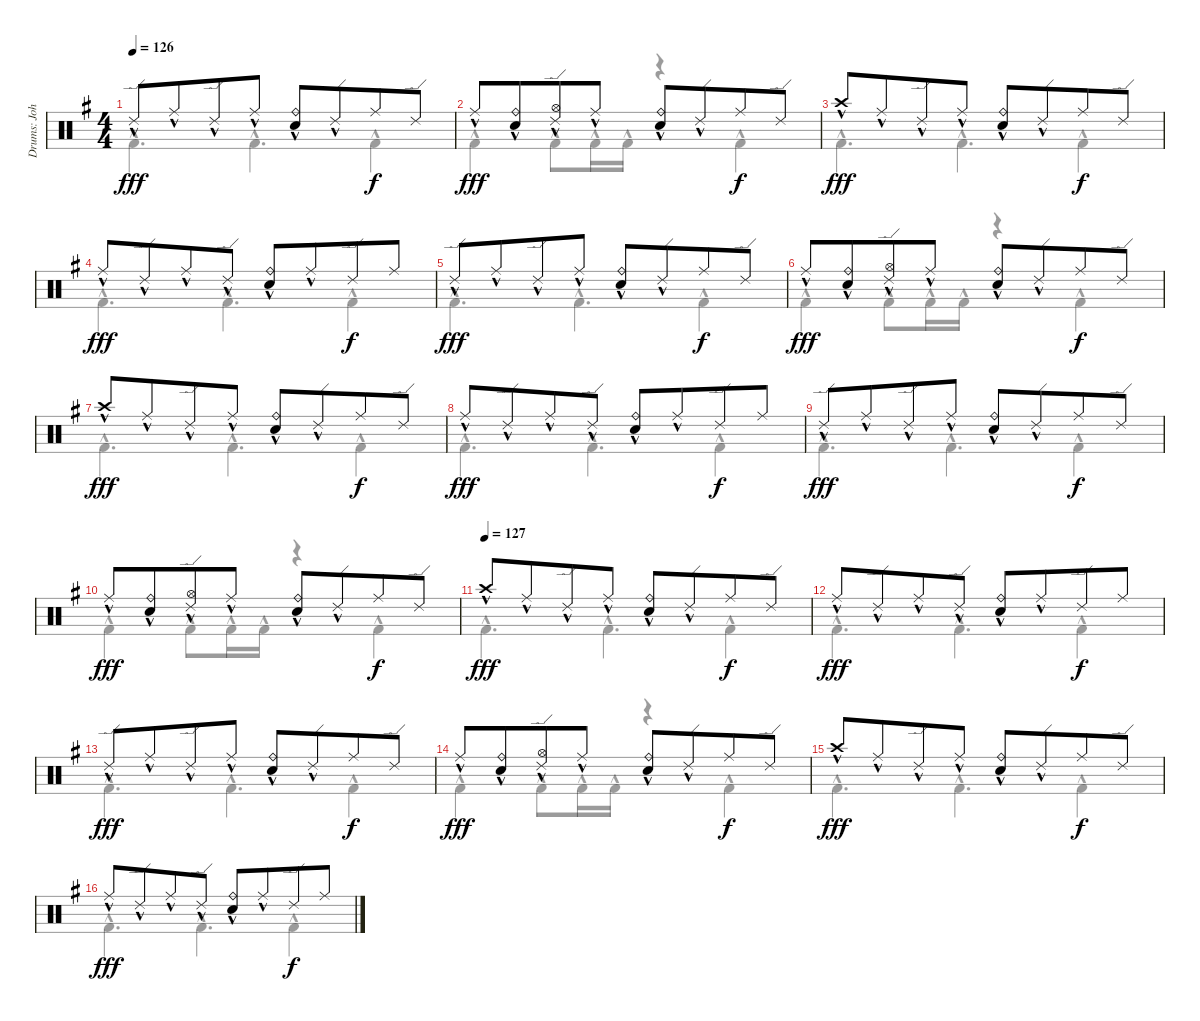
\track ("Drums: John" "Drums: Joh") {instrument percussion}
\staff {score}
\articulation defaults
\voice
\ts (4 4)
\tempo 126
\clef neutral
\ks g "Ride (edge) 2"{hac}.8{dy fff} "Ride (middle)"{hac}.8{beam merge} "Ride (edge) 2"{hac}.8 "Ride (middle)"{hac}.8
("Ride (bell)" "Snare (hit) 2"{hac}).8 "Ride (edge) 2"{hac}.8{beam merge} "Ride (middle)".8{dy f} "Ride (edge) 2".8 |
"Ride (middle)"{hac}.8{dy fff} ("Ride (bell)" "Electric Snare (hit)"{hac}).8{beam merge} ("Ride (edge) 2" "Hi-Hat (open)"{hac}).8 "Ride (middle)"{hac}.8 ("Ride (bell)" "Electric Snare (hit)"{hac}).8 "Ride (edge) 2"{hac}.8{beam merge} "Ride (middle)".8{dy f} "Ride (edge) 2".8 |
"Crash high (hit)"{hac}.8{dy fff} "Ride (middle)"{hac}.8{beam merge} "Ride (edge) 2"{hac}.8 "Ride (middle)"{hac}.8 ("Ride (bell)" "Snare (hit) 2"{hac}).8 "Ride (edge) 2"{hac}.8{beam merge} "Ride (middle)".8{dy f} "Ride (edge) 2".8 |
"Ride (middle)"{hac}.8{dy fff} "Ride (edge) 2"{hac}.8{beam merge} "Ride (middle)"{hac}.8 "Ride (edge) 2"{hac}.8 ("Ride (bell)" "Snare (hit) 2"{hac}).8 "Ride (middle)"{hac}.8{beam merge} "Ride (edge) 2".8{dy f} "Ride (middle)".8 |
"Ride (edge) 2"{hac}.8{dy fff} "Ride (middle)"{hac}.8{beam merge} "Ride (edge) 2"{hac}.8 "Ride (middle)"{hac}.8 ("Ride (bell)" "Snare (hit) 2"{hac}).8 "Ride (edge) 2"{hac}.8{beam merge} "Ride (middle)".8{dy f} "Ride (edge) 2".8 |
"Ride (middle)"{hac}.8{dy fff} ("Ride (bell)" "Electric Snare (hit)"{hac}).8{beam merge} ("Ride (edge) 2" "Hi-Hat (open)"{hac}).8 "Ride (middle)"{hac}.8 ("Ride (bell)" "Electric Snare (hit)"{hac}).8 "Ride (edge) 2"{hac}.8{beam merge} "Ride (middle)".8{dy f} "Ride (edge) 2".8 |
"Crash high (hit)"{hac}.8{dy fff} "Ride (middle)"{hac}.8{beam merge} "Ride (edge) 2"{hac}.8 "Ride (middle)"{hac}.8 ("Ride (bell)" "Snare (hit) 2"{hac}).8 "Ride (edge) 2"{hac}.8{beam merge} "Ride (middle)".8{dy f} "Ride (edge) 2".8 |
"Ride (middle)"{hac}.8{dy fff} "Ride (edge) 2"{hac}.8{beam merge} "Ride (middle)"{hac}.8 "Ride (edge) 2"{hac}.8 ("Ride (bell)" "Snare (hit) 2"{hac}).8 "Ride (middle)"{hac}.8{beam merge} "Ride (edge) 2".8{dy f} "Ride (middle)".8 |
"Ride (edge) 2"{hac}.8{dy fff} "Ride (middle)"{hac}.8{beam merge} "Ride (edge) 2"{hac}.8 "Ride (middle)"{hac}.8 ("Ride (bell)" "Snare (hit) 2"{hac}).8 "Ride (edge) 2"{hac}.8{beam merge} "Ride (middle)".8{dy f} "Ride (edge) 2".8 |
"Ride (middle)"{hac}.8{dy fff} ("Ride (bell)" "Electric Snare (hit)"{hac}).8{beam merge} ("Ride (edge) 2" "Hi-Hat (open)"{hac}).8 "Ride (middle)"{hac}.8 ("Ride (bell)" "Electric Snare (hit)"{hac}).8 "Ride (edge) 2"{hac}.8{beam merge} "Ride (middle)".8{dy f} "Ride (edge) 2".8 |
\tempo (127)
"Crash high (hit)"{hac}.8{dy fff} "Ride (middle)"{hac}.8{beam merge} "Ride (edge) 2"{hac}.8 "Ride (middle)"{hac}.8 ("Ride (bell)" "Snare (hit) 2"{hac}).8 "Ride (edge) 2"{hac}.8{beam merge} "Ride (middle)".8{dy f} "Ride (edge) 2".8 |
"Ride (middle)"{hac}.8{dy fff} "Ride (edge) 2"{hac}.8{beam merge} "Ride (middle)"{hac}.8 "Ride (edge) 2"{hac}.8 ("Ride (bell)" "Snare (hit) 2"{hac}).8 "Ride (middle)"{hac}.8{beam merge} "Ride (edge) 2".8{dy f} "Ride (middle)".8 |
"Ride (edge) 2"{hac}.8{dy fff} "Ride (middle)"{hac}.8{beam merge} "Ride (edge) 2"{hac}.8 "Ride (middle)"{hac}.8 ("Ride (bell)" "Snare (hit) 2"{hac}).8 "Ride (edge) 2"{hac}.8{beam merge} "Ride (middle)".8{dy f} "Ride (edge) 2".8 |
"Ride (middle)"{hac}.8{dy fff} ("Ride (bell)" "Electric Snare (hit)"{hac}).8{beam merge} ("Ride (edge) 2" "Hi-Hat (open)"{hac}).8 "Ride (middle)"{hac}.8 ("Ride (bell)" "Electric Snare (hit)"{hac}).8 "Ride (edge) 2"{hac}.8{beam merge} "Ride (middle)".8{dy f} "Ride (edge) 2".8 |
"Crash high (hit)"{hac}.8{dy fff} "Ride (middle)"{hac}.8{beam merge} "Ride (edge) 2"{hac}.8 "Ride (middle)"{hac}.8 ("Ride (bell)" "Snare (hit) 2"{hac}).8 "Ride (edge) 2"{hac}.8{beam merge} "Ride (middle)".8{dy f} "Ride (edge) 2".8 |
"Ride (middle)"{hac}.8{dy fff} "Ride (edge) 2"{hac}.8{beam merge} "Ride (middle)"{hac}.8 "Ride (edge) 2"{hac}.8 ("Ride (bell)" "Snare (hit) 2"{hac}).8 "Ride (middle)"{hac}.8{beam merge} "Ride (edge) 2".8{dy f} "Ride (middle)".8
\voice
\clef neutral
\ottava regular
\simile none
\ks g "Kick (hit) 2"{hac}.4{d dy fff} "Kick (hit) 2"{hac}.4{d} "Kick (hit) 2"{hac}.4
|
"Kick (hit) 2"{hac}.4 "Kick (hit) 2"{hac}.8 "Kick (hit) 2"{hac}.16 "Kick (hit) 2"{hac}.16 r.4 "Kick (hit) 2"{hac}.4 |
"Kick (hit) 2"{hac}.4{d} "Kick (hit) 2"{hac}.4{d} "Kick (hit) 2"{hac}.4 |
"Kick (hit) 2"{hac}.4{d} "Kick (hit) 2"{hac}.4{d} "Kick (hit) 2"{hac}.4 |
"Kick (hit) 2"{hac}.4{d} "Kick (hit) 2"{hac}.4{d} "Kick (hit) 2"{hac}.4 |
"Kick (hit) 2"{hac}.4 "Kick (hit) 2"{hac}.8 "Kick (hit) 2"{hac}.16 "Kick (hit) 2"{hac}.16 r.4 "Kick (hit) 2"{hac}.4 |
"Kick (hit) 2"{hac}.4{d} "Kick (hit) 2"{hac}.4{d} "Kick (hit) 2"{hac}.4 |
"Kick (hit) 2"{hac}.4{d} "Kick (hit) 2"{hac}.4{d} "Kick (hit) 2"{hac}.4 |
"Kick (hit) 2"{hac}.4{d} "Kick (hit) 2"{hac}.4{d} "Kick (hit) 2"{hac}.4 |
"Kick (hit) 2"{hac}.4 "Kick (hit) 2"{hac}.8 "Kick (hit) 2"{hac}.16 "Kick (hit) 2"{hac}.16 r.4 "Kick (hit) 2"{hac}.4 |
"Kick (hit) 2"{hac}.4{d} "Kick (hit) 2"{hac}.4{d} "Kick (hit) 2"{hac}.4 |
"Kick (hit) 2"{hac}.4{d} "Kick (hit) 2"{hac}.4{d} "Kick (hit) 2"{hac}.4 |
"Kick (hit) 2"{hac}.4{d} "Kick (hit) 2"{hac}.4{d} "Kick (hit) 2"{hac}.4 |
"Kick (hit) 2"{hac}.4 "Kick (hit) 2"{hac}.8 "Kick (hit) 2"{hac}.16 "Kick (hit) 2"{hac}.16 r.4 "Kick (hit) 2"{hac}.4 |
"Kick (hit) 2"{hac}.4{d} "Kick (hit) 2"{hac}.4{d} "Kick (hit) 2"{hac}.4 |
"Kick (hit) 2"{hac}.4{d} "Kick (hit) 2"{hac}.4{d} "Kick (hit) 2"{hac}.4
